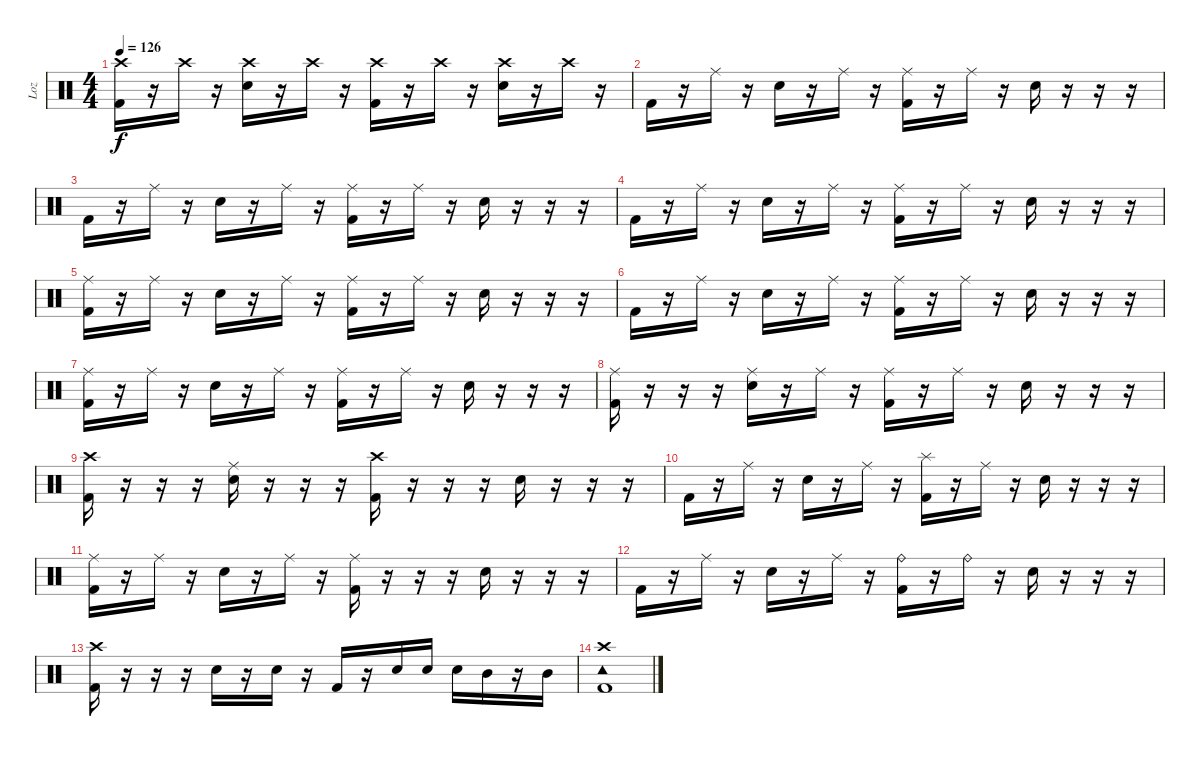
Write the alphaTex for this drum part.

\track ("Loz" "Loz") {instrument percussion}
\staff {score}
\articulation defaults
\ts (4 4)
\tempo 126
\clef neutral
\ks c
("Crash high (hit)" "Kick (hit) 2").16{dy f} r.16 "Crash high (hit)".16 r.16 ("Crash high (hit)" "Snare (hit) 2").16 r.16 "Crash high (hit)".16 r.16 ("Crash high (hit)" "Kick (hit) 2").16 r.16 "Crash high (hit)".16 r.16 ("Crash high (hit)" "Snare (hit) 2").16 r.16 "Crash high (hit)".16 r.16 |
"Kick (hit) 2".16 r.16 "Ride (middle)".16 r.16 "Snare (hit) 2".16 r.16 "Ride (middle)".16 r.16 ("Ride (middle)" "Kick (hit) 2").16 r.16 "Ride (middle)".16 r.16 "Snare (hit) 2".16 r.16 r.16 r.16 |
"Kick (hit) 2".16 r.16 "Ride (middle)".16 r.16 "Snare (hit) 2".16 r.16 "Ride (middle)".16 r.16 ("Ride (middle)" "Kick (hit) 2").16 r.16 "Ride (middle)".16 r.16 "Snare (hit) 2".16 r.16 r.16 r.16 |
"Kick (hit) 2".16 r.16 "Ride (middle)".16 r.16 "Snare (hit) 2".16 r.16 "Ride (middle)".16 r.16 ("Ride (middle)" "Kick (hit) 2").16 r.16 "Ride (middle)".16 r.16 "Snare (hit) 2".16 r.16 r.16 r.16 |
("Ride (middle)" "Kick (hit) 2").16 r.16 "Ride (middle)".16 r.16 "Snare (hit) 2".16 r.16 "Ride (middle)".16 r.16 ("Ride (middle)" "Kick (hit) 2").16 r.16 "Ride (middle)".16 r.16 "Snare (hit) 2".16 r.16 r.16 r.16 |
"Kick (hit) 2".16 r.16 "Ride (middle)".16 r.16 "Snare (hit) 2".16 r.16 "Ride (middle)".16 r.16 ("Ride (middle)" "Kick (hit) 2").16 r.16 "Ride (middle)".16 r.16 "Snare (hit) 2".16 r.16 r.16 r.16 |
("Ride (middle)" "Kick (hit) 2").16 r.16 "Ride (middle)".16 r.16 "Snare (hit) 2".16 r.16 "Ride (middle)".16 r.16 ("Ride (middle)" "Kick (hit) 2").16 r.16 "Ride (middle)".16 r.16 "Snare (hit) 2".16 r.16 r.16 r.16 |
("Ride (middle)" "Kick (hit) 2").16 r.16 r.16 r.16 ("Ride (middle)" "Snare (hit) 2").16 r.16 "Ride (middle)".16 r.16 ("Ride (middle)" "Kick (hit) 2").16 r.16 "Ride (middle)".16 r.16 "Snare (hit) 2".16 r.16 r.16 r.16 |
("Crash high (hit)" "Kick (hit) 2").16 r.16 r.16 r.16 ("Ride (middle)" "Snare (hit) 2").16 r.16 r.16 r.16 ("Crash high (hit)" "Kick (hit) 2").16 r.16 r.16 r.16 "Snare (hit) 2".16 r.16 r.16 r.16 |
"Kick (hit) 2".16 r.16 "Ride (middle)".16 r.16 "Snare (hit) 2".16 r.16 "Ride (middle)".16 r.16 ("Splash (hit)" "Kick (hit) 2").16 r.16 "Ride (middle)".16 r.16 "Snare (hit) 2".16 r.16 r.16 r.16 |
("Ride (middle)" "Kick (hit) 2").16 r.16 "Ride (middle)".16 r.16 "Snare (hit) 2".16 r.16 "Ride (middle)".16 r.16 ("Ride (middle)" "Kick (hit) 2").16 r.16 r.16 r.16 "Snare (hit) 2".16 r.16 r.16 r.16 |
"Kick (hit) 2".16 r.16 "Ride (middle)".16 r.16 "Snare (hit) 2".16 r.16 "Ride (middle)".16 r.16 ("Ride (bell)" "Kick (hit) 2").16 r.16 "Ride (bell)".16 r.16 "Snare (hit) 2".16 r.16 r.16 r.16 |
("Crash high (hit)" "Kick (hit) 2").16 r.16 r.16 r.16 "Snare (hit) 2".16 r.16 "Snare (hit) 2".16 r.16 "Kick (hit) 2".16 r.16 "Snare (hit) 2".16 "Snare (hit) 2".16 "Snare (hit) 2".16 "Mid Tom (hit)".16 r.16 "Mid Tom (hit)".16 |
("Crash high (hit)" "Tambourine (hit)" "Kick (hit) 2").1
